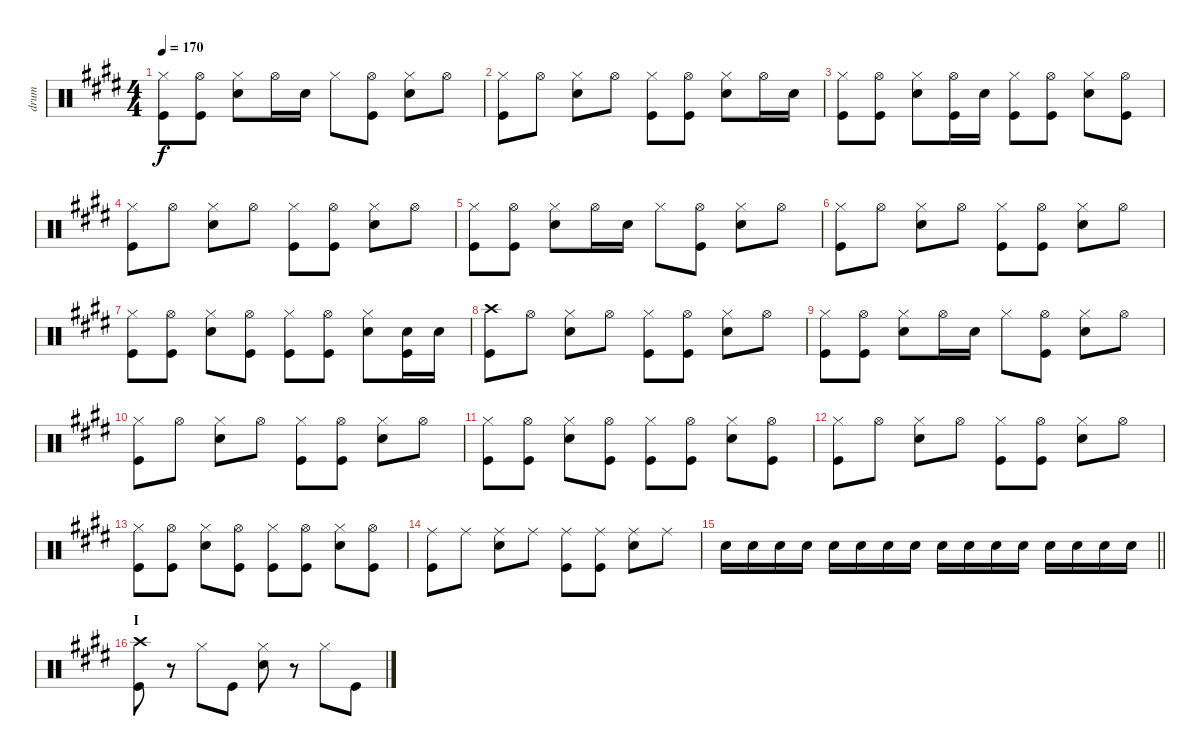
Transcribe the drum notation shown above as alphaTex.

\track ("drum" "drum") {instrument percussion}
\staff {score}
\articulation defaults
\ts (4 4)
\tempo 170
\clef neutral
\ks e
("Hi-Hat (closed)" "Kick (hit)").8{dy f} ("Hi-Hat (open)" "Kick (hit)").8 ("Hi-Hat (closed)" "Snare (hit) 2").8 "Hi-Hat (open)".16 "Snare (hit) 2".16 "Hi-Hat (closed)".8 ("Hi-Hat (open)" "Kick (hit)").8 ("Hi-Hat (closed)" "Snare (hit) 2").8 "Hi-Hat (open)".8 |
("Hi-Hat (closed)" "Kick (hit)").8 "Hi-Hat (open)".8 ("Hi-Hat (closed)" "Snare (hit) 2").8 "Hi-Hat (open)".8 ("Hi-Hat (closed)" "Kick (hit)").8 ("Hi-Hat (open)" "Kick (hit)").8 ("Hi-Hat (closed)" "Snare (hit) 2").8 "Hi-Hat (open)".16 "Snare (hit) 2".16 |
("Hi-Hat (closed)" "Kick (hit)").8 ("Hi-Hat (open)" "Kick (hit)").8 ("Hi-Hat (closed)" "Snare (hit) 2").8 ("Hi-Hat (open)" "Kick (hit)").16 "Snare (hit) 2".16 ("Hi-Hat (closed)" "Kick (hit)").8 ("Hi-Hat (open)" "Kick (hit)").8 ("Hi-Hat (closed)" "Snare (hit) 2").8 ("Hi-Hat (open)" "Kick (hit)").8 |
("Hi-Hat (closed)" "Kick (hit)").8 "Hi-Hat (open)".8 ("Hi-Hat (closed)" "Snare (hit) 2").8 "Hi-Hat (open)".8 ("Hi-Hat (closed)" "Kick (hit)").8 ("Hi-Hat (open)" "Kick (hit)").8 ("Hi-Hat (closed)" "Snare (hit) 2").8 "Hi-Hat (open)".8 |
("Hi-Hat (closed)" "Kick (hit)").8 ("Hi-Hat (open)" "Kick (hit)").8 ("Hi-Hat (closed)" "Snare (hit) 2").8 "Hi-Hat (open)".16 "Snare (hit) 2".16 "Hi-Hat (closed)".8 ("Hi-Hat (open)" "Kick (hit)").8 ("Hi-Hat (closed)" "Snare (hit) 2").8 "Hi-Hat (open)".8 |
("Hi-Hat (closed)" "Kick (hit)").8 "Hi-Hat (open)".8 ("Hi-Hat (closed)" "Snare (hit) 2").8 "Hi-Hat (open)".8 ("Hi-Hat (closed)" "Kick (hit)").8 ("Hi-Hat (open)" "Kick (hit)").8 ("Hi-Hat (closed)" "Snare (hit) 2").8 "Hi-Hat (open)".8 |
("Hi-Hat (closed)" "Kick (hit)").8 ("Hi-Hat (open)" "Kick (hit)").8 ("Hi-Hat (closed)" "Snare (hit) 2").8 ("Hi-Hat (open)" "Kick (hit)").8 ("Hi-Hat (closed)" "Kick (hit)").8 ("Hi-Hat (open)" "Kick (hit)").8 ("Hi-Hat (closed)" "Snare (hit) 2").8 ("Snare (hit) 2" "Kick (hit)").16 "Snare (hit) 2".16 |
("Crash high (hit)" "Kick (hit)").8 "Hi-Hat (open)".8 ("Hi-Hat (closed)" "Snare (hit) 2").8 "Hi-Hat (open)".8 ("Hi-Hat (closed)" "Kick (hit)").8 ("Hi-Hat (open)" "Kick (hit)").8 ("Hi-Hat (closed)" "Snare (hit) 2").8 "Hi-Hat (open)".8 |
("Hi-Hat (closed)" "Kick (hit)").8 ("Hi-Hat (open)" "Kick (hit)").8 ("Hi-Hat (closed)" "Snare (hit) 2").8 "Hi-Hat (open)".16 "Snare (hit) 2".16 "Hi-Hat (closed)".8 ("Hi-Hat (open)" "Kick (hit)").8 ("Hi-Hat (closed)" "Snare (hit) 2").8 "Hi-Hat (open)".8 |
("Hi-Hat (closed)" "Kick (hit)").8 "Hi-Hat (open)".8 ("Hi-Hat (closed)" "Snare (hit) 2").8 "Hi-Hat (open)".8 ("Hi-Hat (closed)" "Kick (hit)").8 ("Hi-Hat (open)" "Kick (hit)").8 ("Hi-Hat (closed)" "Snare (hit) 2").8 "Hi-Hat (open)".8 |
("Hi-Hat (closed)" "Kick (hit)").8 ("Hi-Hat (open)" "Kick (hit)").8 ("Hi-Hat (closed)" "Snare (hit) 2").8 ("Hi-Hat (open)" "Kick (hit)").8 ("Hi-Hat (closed)" "Kick (hit)").8 ("Hi-Hat (open)" "Kick (hit)").8 ("Hi-Hat (closed)" "Snare (hit) 2").8 ("Hi-Hat (open)" "Kick (hit)").8 |
("Hi-Hat (closed)" "Kick (hit)").8 "Hi-Hat (open)".8 ("Hi-Hat (closed)" "Snare (hit) 2").8 "Hi-Hat (open)".8 ("Hi-Hat (closed)" "Kick (hit)").8 ("Hi-Hat (open)" "Kick (hit)").8 ("Hi-Hat (closed)" "Snare (hit) 2").8 "Hi-Hat (open)".8 |
("Hi-Hat (closed)" "Kick (hit)").8 ("Hi-Hat (open)" "Kick (hit)").8 ("Hi-Hat (closed)" "Snare (hit) 2").8 ("Hi-Hat (open)" "Kick (hit)").8 ("Hi-Hat (closed)" "Kick (hit)").8 ("Hi-Hat (open)" "Kick (hit)").8 ("Hi-Hat (closed)" "Snare (hit) 2").8 ("Hi-Hat (open)" "Kick (hit)").8 |
("Ride (middle)" "Kick (hit)").8 "Ride (middle)".8 ("Ride (middle)" "Snare (hit) 2").8 "Ride (middle)".8 ("Ride (middle)" "Kick (hit)").8 ("Ride (middle)" "Kick (hit)").8 ("Ride (middle)" "Snare (hit) 2").8 "Ride (middle)".8 |
\barLineRight lightlight "Snare (hit) 2".16 "Snare (hit) 2".16 "Snare (hit) 2".16 "Snare (hit) 2".16 "Snare (hit) 2".16 "Snare (hit) 2".16 "Snare (hit) 2".16 "Snare (hit) 2".16 "Snare (hit) 2".16 "Snare (hit) 2".16 "Snare (hit) 2".16 "Snare (hit) 2".16 "Snare (hit) 2".16 "Snare (hit) 2".16 "Snare (hit) 2".16 "Snare (hit) 2".16
|
\section ("" "I")
("Crash high (hit)" "Kick (hit)").8 r.8 "Hi-Hat (closed)".8 "Kick (hit)".8 ("Hi-Hat (closed)" "Snare (hit) 2").8 r.8 "Hi-Hat (closed)".8 "Kick (hit)".8
